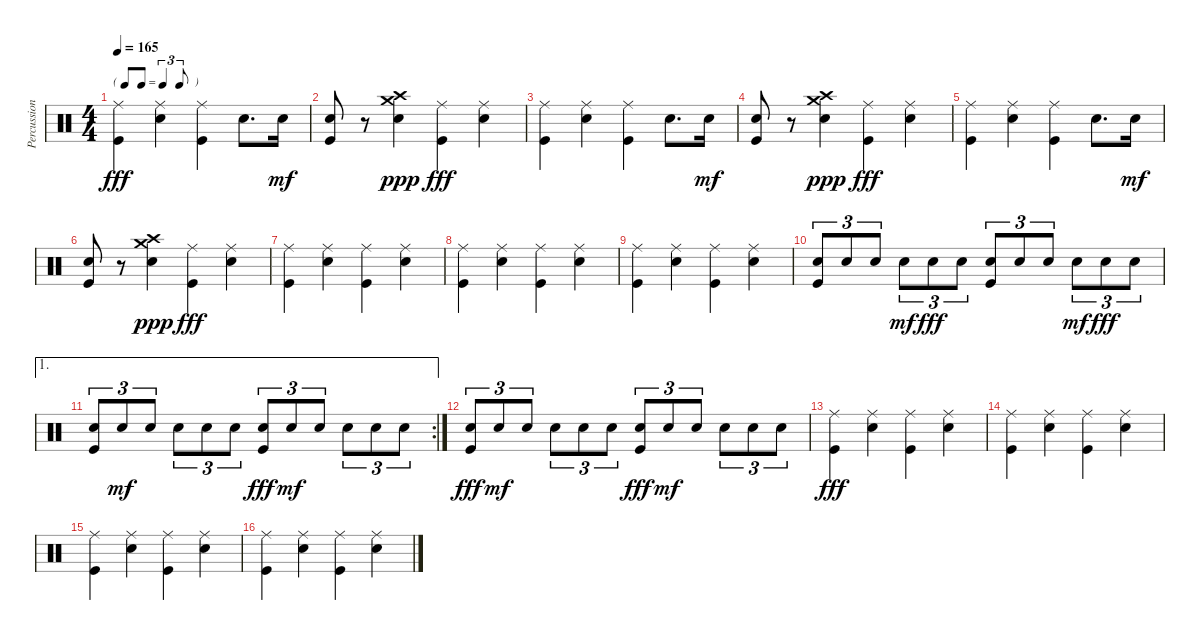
\track ("Percussions" "Percussion") {instrument percussion}
\staff {score}
\articulation defaults
\ts (4 4)
\tf triplet8th
\tempo 165
\clef neutral
\ks c
("Kick (hit)" "Ride (middle)").4{dy fff} ("Electric Snare (hit)" "Ride (middle)").4 ("Kick (hit)" "Ride (middle)").4 "Electric Snare (hit)".8{d} "Electric Snare (hit)".16{dy mf} |
("Kick (hit)" "Electric Snare (hit)").8 r.8 ("Crash medium (hit)" "Crash high (hit)" "Electric Snare (hit)").4{dy ppp} ("Kick (hit)" "Ride (middle)").4{dy fff} ("Electric Snare (hit)" "Ride (middle)").4 |
("Kick (hit)" "Ride (middle)").4 ("Electric Snare (hit)" "Ride (middle)").4 ("Kick (hit)" "Ride (middle)").4 "Electric Snare (hit)".8{d} "Electric Snare (hit)".16{dy mf} |
("Kick (hit)" "Electric Snare (hit)").8 r.8 ("Crash medium (hit)" "Crash high (hit)" "Electric Snare (hit)").4{dy ppp} ("Kick (hit)" "Ride (middle)").4{dy fff} ("Electric Snare (hit)" "Ride (middle)").4 |
("Kick (hit)" "Ride (middle)").4 ("Electric Snare (hit)" "Ride (middle)").4 ("Kick (hit)" "Ride (middle)").4 "Electric Snare (hit)".8{d} "Electric Snare (hit)".16{dy mf} |
("Kick (hit)" "Electric Snare (hit)").8 r.8 ("Crash medium (hit)" "Crash high (hit)" "Electric Snare (hit)").4{dy ppp} ("Kick (hit)" "Ride (middle)").4{dy fff} ("Electric Snare (hit)" "Ride (middle)").4 |
("Kick (hit)" "Ride (middle)").4 ("Electric Snare (hit)" "Ride (middle)").4 ("Kick (hit)" "Ride (middle)").4 ("Electric Snare (hit)" "Ride (middle)").4 |
("Kick (hit)" "Ride (middle)").4 ("Electric Snare (hit)" "Ride (middle)").4 ("Kick (hit)" "Ride (middle)").4 ("Electric Snare (hit)" "Ride (middle)").4 |
("Kick (hit)" "Ride (middle)").4 ("Electric Snare (hit)" "Ride (middle)").4 ("Kick (hit)" "Ride (middle)").4 ("Electric Snare (hit)" "Ride (middle)").4 |
("Electric Snare (hit)" "Kick (hit)").8{tu (3 2)} "Electric Snare (hit)".8{tu (3 2)} "Electric Snare (hit)".8{tu (3 2)} "Electric Snare (hit)".8{tu (3 2) dy mf} "Electric Snare (hit)".8{tu (3 2) dy fff} "Electric Snare (hit)".8{tu (3 2)} ("Electric Snare (hit)" "Kick (hit)").8{tu (3 2)} "Electric Snare (hit)".8{tu (3 2)} "Electric Snare (hit)".8{tu (3 2)} "Electric Snare (hit)".8{tu (3 2) dy mf} "Electric Snare (hit)".8{tu (3 2) dy fff} "Electric Snare (hit)".8{tu (3 2)} |
\ae 1
\rc 2
("Electric Snare (hit)" "Kick (hit)").8{tu (3 2)} "Electric Snare (hit)".8{tu (3 2) dy mf} "Electric Snare (hit)".8{tu (3 2)} "Electric Snare (hit)".8{tu (3 2)} "Electric Snare (hit)".8{tu (3 2)} "Electric Snare (hit)".8{tu (3 2)} ("Electric Snare (hit)" "Kick (hit)").8{tu (3 2) dy fff} "Electric Snare (hit)".8{tu (3 2) dy mf} "Electric Snare (hit)".8{tu (3 2)} "Electric Snare (hit)".8{tu (3 2)} "Electric Snare (hit)".8{tu (3 2)} "Electric Snare (hit)".8{tu (3 2)} |
("Electric Snare (hit)" "Kick (hit)").8{tu (3 2) dy fff} "Electric Snare (hit)".8{tu (3 2) dy mf} "Electric Snare (hit)".8{tu (3 2)} "Electric Snare (hit)".8{tu (3 2)} "Electric Snare (hit)".8{tu (3 2)} "Electric Snare (hit)".8{tu (3 2)} ("Electric Snare (hit)" "Kick (hit)").8{tu (3 2) dy fff} "Electric Snare (hit)".8{tu (3 2) dy mf} "Electric Snare (hit)".8{tu (3 2)} "Electric Snare (hit)".8{tu (3 2)} "Electric Snare (hit)".8{tu (3 2)} "Electric Snare (hit)".8{tu (3 2)} |
("Kick (hit)" "Ride (middle)").4{dy fff} ("Electric Snare (hit)" "Ride (middle)").4 ("Kick (hit)" "Ride (middle)").4 ("Electric Snare (hit)" "Ride (middle)").4 |
("Kick (hit)" "Ride (middle)").4 ("Electric Snare (hit)" "Ride (middle)").4 ("Kick (hit)" "Ride (middle)").4 ("Electric Snare (hit)" "Ride (middle)").4 |
("Kick (hit)" "Ride (middle)").4 ("Electric Snare (hit)" "Ride (middle)").4 ("Kick (hit)" "Ride (middle)").4 ("Electric Snare (hit)" "Ride (middle)").4 |
("Kick (hit)" "Ride (middle)").4 ("Electric Snare (hit)" "Ride (middle)").4 ("Kick (hit)" "Ride (middle)").4 ("Electric Snare (hit)" "Ride (middle)").4
